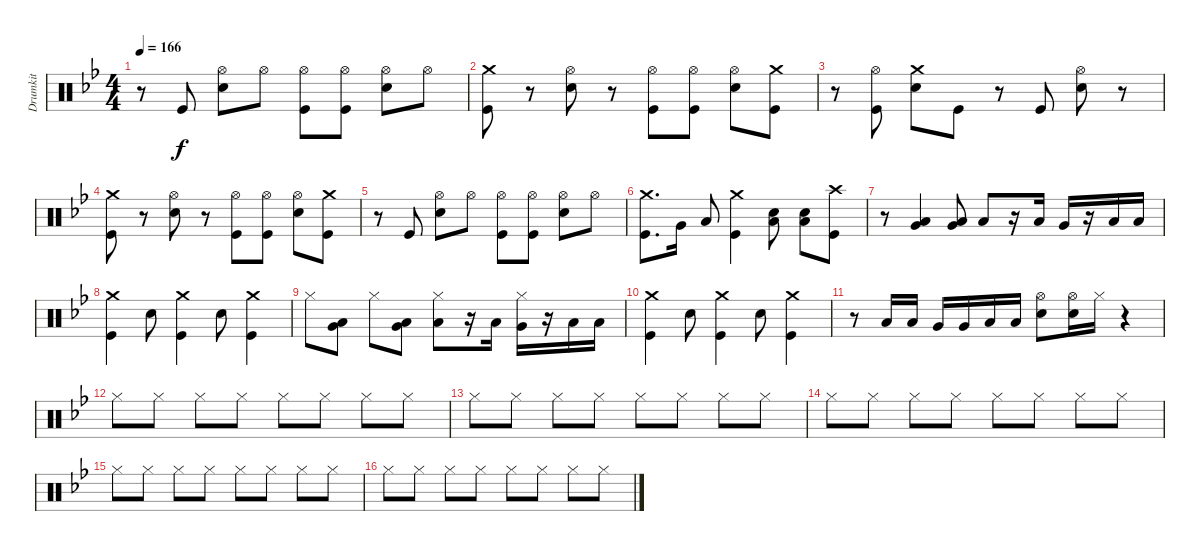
\track ("Drumkit" "Drumkit") {instrument percussion}
\staff {score}
\articulation defaults
\ts (4 4)
\tempo 166
\clef neutral
\ks gminor
r.8{dy f} "Kick (hit)".8 ("Snare (hit) 2" "Hi-Hat (open)").8 "Hi-Hat (open)".8 ("Kick (hit)" "Hi-Hat (open)").8 ("Kick (hit)" "Hi-Hat (open)").8 ("Snare (hit) 2" "Hi-Hat (open)").8 "Hi-Hat (open)".8 |
("Kick (hit)" "Crash medium (hit)").8 r.8 ("Snare (hit) 2" "Hi-Hat (open)").8 r.8 ("Kick (hit)" "Hi-Hat (open)").8 ("Kick (hit)" "Hi-Hat (open)").8 ("Snare (hit) 2" "Hi-Hat (open)").8 ("Kick (hit)" "Crash medium (hit)").8 |
r.8 ("Kick (hit)" "Hi-Hat (open)").8 ("Snare (hit) 2" "Crash medium (hit)").8 "Kick (hit)".8 r.8 "Kick (hit)".8 ("Snare (hit) 2" "Hi-Hat (open)").8 r.8 |
("Kick (hit)" "Crash medium (hit)").8 r.8 ("Snare (hit) 2" "Hi-Hat (open)").8 r.8 ("Kick (hit)" "Hi-Hat (open)").8 ("Kick (hit)" "Hi-Hat (open)").8 ("Snare (hit) 2" "Hi-Hat (open)").8 ("Kick (hit)" "Crash medium (hit)").8 |
r.8 "Kick (hit)".8 ("Snare (hit) 2" "Hi-Hat (open)").8 "Hi-Hat (open)".8 ("Kick (hit)" "Hi-Hat (open)").8 ("Kick (hit)" "Hi-Hat (open)").8 ("Snare (hit) 2" "Hi-Hat (open)").8 "Hi-Hat (open)".8 |
("Kick (hit)" "Crash medium (hit)").8{d} "Very Low Tom (hit)".16 "Low Floor Tom (hit)".8 ("Kick (hit)" "Crash medium (hit)").4 ("Low Floor Tom (hit)" "Snare (hit) 2").8 ("Low Floor Tom (hit)" "Snare (hit) 2").8 ("Kick (hit)" "Crash high (hit)").8 |
r.8 ("Low Tom (hit)" "Very Low Tom (hit)").4 ("Low Floor Tom (hit)" "Very Low Tom (hit)").8 "Low Floor Tom (hit)".8 r.16 "Low Tom (hit)".16 "Very Low Tom (hit)".16 r.16 "Low Floor Tom (hit)".16 "Low Floor Tom (hit)".16 |
("Kick (hit)" "Crash medium (hit)").4 "Snare (hit) 2".8 ("Kick (hit)" "Crash medium (hit)").4 "Snare (hit) 2".8 ("Kick (hit)" "Crash medium (hit)").4 |
"Hi-Hat (closed)".8 ("Low Tom (hit)" "Very Low Tom (hit)").8 "Hi-Hat (closed)".8 ("Low Floor Tom (hit)" "Very Low Tom (hit)").8 ("Low Floor Tom (hit)" "Hi-Hat (closed)").8 r.16 "Low Tom (hit)".16 ("Very Low Tom (hit)" "Hi-Hat (closed)").16 r.16 "Low Floor Tom (hit)".16 "Low Floor Tom (hit)".16 |
("Kick (hit)" "Crash medium (hit)").4 "Snare (hit) 2".8 ("Kick (hit)" "Crash medium (hit)").4 "Snare (hit) 2".8 ("Kick (hit)" "Crash medium (hit)").4 |
r.8 "Low Tom (hit)".16 "Low Tom (hit)".16 "Very Low Tom (hit)".16 "Very Low Tom (hit)".16 "Low Floor Tom (hit)".16 "Low Floor Tom (hit)".16 ("Snare (hit) 2" "Hi-Hat (open)").8 ("Snare (hit) 2" "Hi-Hat (open)").16 "Hi-Hat (closed)".16 r.4 |
"Hi-Hat (closed)".8 "Hi-Hat (closed)".8 "Hi-Hat (closed)".8 "Hi-Hat (closed)".8 "Hi-Hat (closed)".8 "Hi-Hat (closed)".8 "Hi-Hat (closed)".8 "Hi-Hat (closed)".8 |
"Hi-Hat (closed)".8 "Hi-Hat (closed)".8 "Hi-Hat (closed)".8 "Hi-Hat (closed)".8 "Hi-Hat (closed)".8 "Hi-Hat (closed)".8 "Hi-Hat (closed)".8 "Hi-Hat (closed)".8 |
"Hi-Hat (closed)".8 "Hi-Hat (closed)".8 "Hi-Hat (closed)".8 "Hi-Hat (closed)".8 "Hi-Hat (closed)".8 "Hi-Hat (closed)".8 "Hi-Hat (closed)".8 "Hi-Hat (closed)".8 |
"Hi-Hat (closed)".8 "Hi-Hat (closed)".8 "Hi-Hat (closed)".8 "Hi-Hat (closed)".8 "Hi-Hat (closed)".8 "Hi-Hat (closed)".8 "Hi-Hat (closed)".8 "Hi-Hat (closed)".8 |
"Hi-Hat (closed)".8 "Hi-Hat (closed)".8 "Hi-Hat (closed)".8 "Hi-Hat (closed)".8 "Hi-Hat (closed)".8 "Hi-Hat (closed)".8 "Hi-Hat (closed)".8 "Hi-Hat (closed)".8
